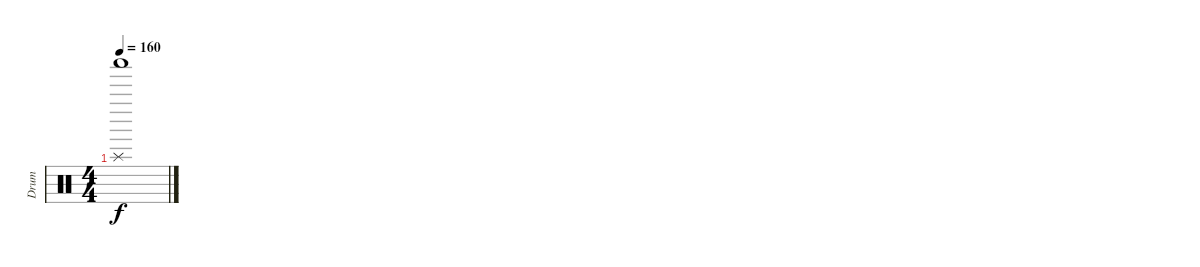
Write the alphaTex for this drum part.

\track ("Drum" "Drum") {instrument percussion}
\staff {score}
\articulation defaults
\ts (4 4)
\tempo 160
\clef neutral
\ks c
("Splash (hit)" "Shaker (hit)").1{dy f}
